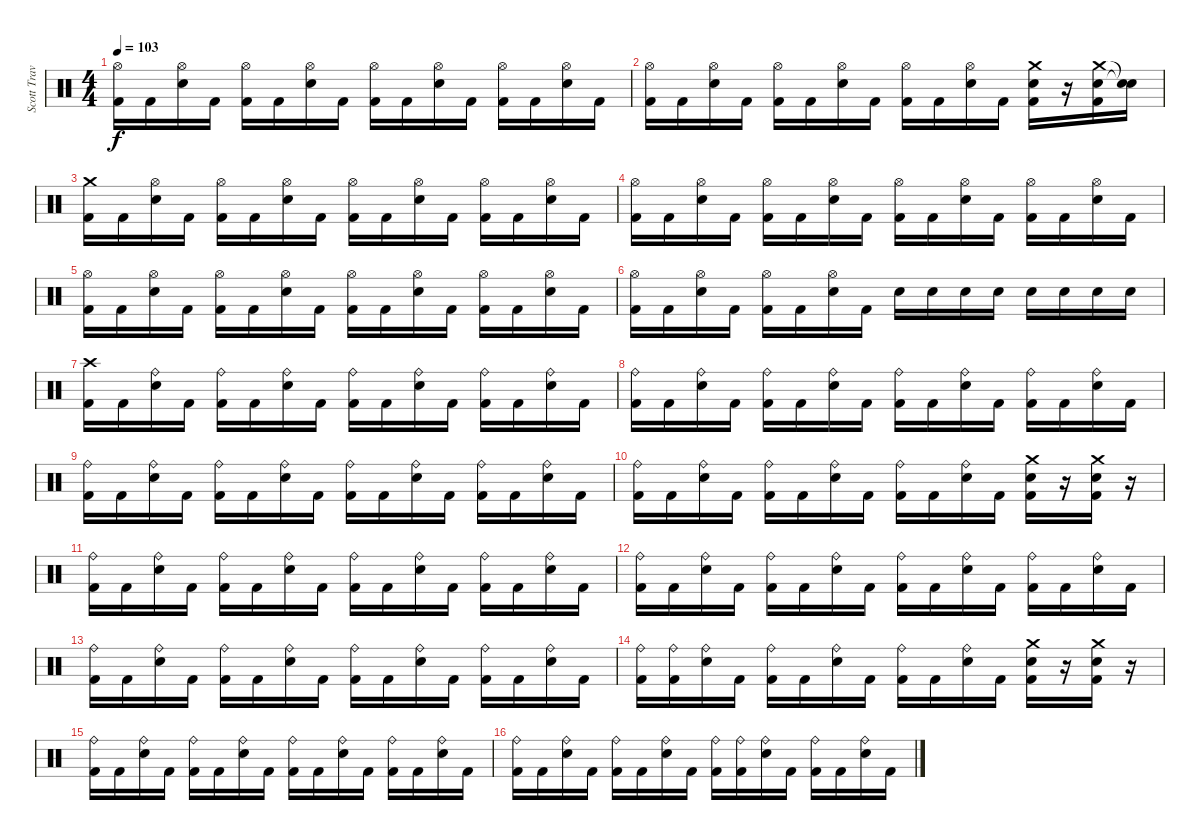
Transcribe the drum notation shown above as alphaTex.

\track ("Scott Travis" "Scott Trav") {instrument percussion}
\staff {score}
\articulation defaults
\ts (4 4)
\tempo 103
\clef neutral
\ks c
("Hi-Hat (open)" "Kick (hit) 2").16{dy f} "Kick (hit) 2".16 ("Hi-Hat (open)" "Snare (hit) 2").16 "Kick (hit) 2".16 ("Hi-Hat (open)" "Kick (hit) 2").16 "Kick (hit) 2".16 ("Hi-Hat (open)" "Snare (hit) 2").16 "Kick (hit) 2".16 ("Hi-Hat (open)" "Kick (hit) 2").16 "Kick (hit) 2".16 ("Hi-Hat (open)" "Snare (hit) 2").16 "Kick (hit) 2".16 ("Hi-Hat (open)" "Kick (hit) 2").16 "Kick (hit) 2".16 ("Hi-Hat (open)" "Snare (hit) 2").16 "Kick (hit) 2".16 |
("Hi-Hat (open)" "Kick (hit) 2").16 "Kick (hit) 2".16 ("Hi-Hat (open)" "Snare (hit) 2").16 "Kick (hit) 2".16 ("Hi-Hat (open)" "Kick (hit) 2").16 "Kick (hit) 2".16 ("Hi-Hat (open)" "Snare (hit) 2").16 "Kick (hit) 2".16 ("Hi-Hat (open)" "Kick (hit) 2").16 "Kick (hit) 2".16 ("Hi-Hat (open)" "Snare (hit) 2").16 "Kick (hit) 2".16 ("Crash medium (hit)" "Snare (hit) 2" "Kick (hit) 2").16 r.16 ("Crash medium (hit)" "Snare (hit) 2" "Kick (hit) 2").16 ("Snare (hit)"{t} "Snare (hit)"{t}).16 |
("Crash medium (hit)" "Kick (hit) 2").16 "Kick (hit) 2".16 ("Hi-Hat (open)" "Snare (hit) 2").16 "Kick (hit) 2".16 ("Hi-Hat (open)" "Kick (hit) 2").16 "Kick (hit) 2".16 ("Hi-Hat (open)" "Snare (hit) 2").16 "Kick (hit) 2".16 ("Hi-Hat (open)" "Kick (hit) 2").16 "Kick (hit) 2".16 ("Hi-Hat (open)" "Snare (hit) 2").16 "Kick (hit) 2".16 ("Hi-Hat (open)" "Kick (hit) 2").16 "Kick (hit) 2".16 ("Hi-Hat (open)" "Snare (hit) 2").16 "Kick (hit) 2".16 |
("Hi-Hat (open)" "Kick (hit) 2").16 "Kick (hit) 2".16 ("Hi-Hat (open)" "Snare (hit) 2").16 "Kick (hit) 2".16 ("Hi-Hat (open)" "Kick (hit) 2").16 "Kick (hit) 2".16 ("Hi-Hat (open)" "Snare (hit) 2").16 "Kick (hit) 2".16 ("Hi-Hat (open)" "Kick (hit) 2").16 "Kick (hit) 2".16 ("Hi-Hat (open)" "Snare (hit) 2").16 "Kick (hit) 2".16 ("Hi-Hat (open)" "Kick (hit) 2").16 "Kick (hit) 2".16 ("Hi-Hat (open)" "Snare (hit) 2").16 "Kick (hit) 2".16 |
("Hi-Hat (open)" "Kick (hit) 2").16 "Kick (hit) 2".16 ("Hi-Hat (open)" "Snare (hit) 2").16 "Kick (hit) 2".16 ("Hi-Hat (open)" "Kick (hit) 2").16 "Kick (hit) 2".16 ("Hi-Hat (open)" "Snare (hit) 2").16 "Kick (hit) 2".16 ("Hi-Hat (open)" "Kick (hit) 2").16 "Kick (hit) 2".16 ("Hi-Hat (open)" "Snare (hit) 2").16 "Kick (hit) 2".16 ("Hi-Hat (open)" "Kick (hit) 2").16 "Kick (hit) 2".16 ("Hi-Hat (open)" "Snare (hit) 2").16 "Kick (hit) 2".16 |
("Hi-Hat (open)" "Kick (hit) 2").16 "Kick (hit) 2".16 ("Hi-Hat (open)" "Snare (hit) 2").16 "Kick (hit) 2".16 ("Hi-Hat (open)" "Kick (hit) 2").16 "Kick (hit) 2".16 ("Hi-Hat (open)" "Snare (hit) 2").16 "Kick (hit) 2".16 "Snare (hit) 2".16 "Snare (hit) 2".16 "Snare (hit) 2".16 "Snare (hit) 2".16 "Snare (hit) 2".16 "Snare (hit) 2".16 "Snare (hit) 2".16 "Snare (hit) 2".16 |
("Crash high (hit)" "Kick (hit) 2").16 "Kick (hit) 2".16 ("Ride (bell)" "Snare (hit) 2").16 "Kick (hit) 2".16 ("Ride (bell)" "Kick (hit) 2").16 "Kick (hit) 2".16 ("Ride (bell)" "Snare (hit) 2").16 "Kick (hit) 2".16 ("Ride (bell)" "Kick (hit) 2").16 "Kick (hit) 2".16 ("Ride (bell)" "Snare (hit) 2").16 "Kick (hit) 2".16 ("Ride (bell)" "Kick (hit) 2").16 "Kick (hit) 2".16 ("Ride (bell)" "Snare (hit) 2").16 "Kick (hit) 2".16 |
("Ride (bell)" "Kick (hit) 2").16 "Kick (hit) 2".16 ("Ride (bell)" "Snare (hit) 2").16 "Kick (hit) 2".16 ("Ride (bell)" "Kick (hit) 2").16 "Kick (hit) 2".16 ("Ride (bell)" "Snare (hit) 2").16 "Kick (hit) 2".16 ("Ride (bell)" "Kick (hit) 2").16 "Kick (hit) 2".16 ("Ride (bell)" "Snare (hit) 2").16 "Kick (hit) 2".16 ("Ride (bell)" "Kick (hit) 2").16 "Kick (hit) 2".16 ("Ride (bell)" "Snare (hit) 2").16 "Kick (hit) 2".16 |
("Ride (bell)" "Kick (hit) 2").16 "Kick (hit) 2".16 ("Ride (bell)" "Snare (hit) 2").16 "Kick (hit) 2".16 ("Ride (bell)" "Kick (hit) 2").16 "Kick (hit) 2".16 ("Ride (bell)" "Snare (hit) 2").16 "Kick (hit) 2".16 ("Ride (bell)" "Kick (hit) 2").16 "Kick (hit) 2".16 ("Ride (bell)" "Snare (hit) 2").16 "Kick (hit) 2".16 ("Ride (bell)" "Kick (hit) 2").16 "Kick (hit) 2".16 ("Ride (bell)" "Snare (hit) 2").16 "Kick (hit) 2".16 |
("Ride (bell)" "Kick (hit) 2").16 "Kick (hit) 2".16 ("Ride (bell)" "Snare (hit) 2").16 "Kick (hit) 2".16 ("Ride (bell)" "Kick (hit) 2").16 "Kick (hit) 2".16 ("Ride (bell)" "Snare (hit) 2").16 "Kick (hit) 2".16 ("Ride (bell)" "Kick (hit) 2").16 "Kick (hit) 2".16 ("Ride (bell)" "Snare (hit) 2").16 "Kick (hit) 2".16 ("Crash medium (hit)" "Snare (hit) 2" "Kick (hit) 2").16 r.16 ("Crash medium (hit)" "Snare (hit) 2" "Kick (hit) 2").16 r.16 |
("Ride (bell)" "Kick (hit) 2").16 "Kick (hit) 2".16 ("Ride (bell)" "Snare (hit) 2").16 "Kick (hit) 2".16 ("Ride (bell)" "Kick (hit) 2").16 "Kick (hit) 2".16 ("Ride (bell)" "Snare (hit) 2").16 "Kick (hit) 2".16 ("Ride (bell)" "Kick (hit) 2").16 "Kick (hit) 2".16 ("Ride (bell)" "Snare (hit) 2").16 "Kick (hit) 2".16 ("Ride (bell)" "Kick (hit) 2").16 "Kick (hit) 2".16 ("Ride (bell)" "Snare (hit) 2").16 "Kick (hit) 2".16 |
("Ride (bell)" "Kick (hit) 2").16 "Kick (hit) 2".16 ("Ride (bell)" "Snare (hit) 2").16 "Kick (hit) 2".16 ("Ride (bell)" "Kick (hit) 2").16 "Kick (hit) 2".16 ("Ride (bell)" "Snare (hit) 2").16 "Kick (hit) 2".16 ("Ride (bell)" "Kick (hit) 2").16 "Kick (hit) 2".16 ("Ride (bell)" "Snare (hit) 2").16 "Kick (hit) 2".16 ("Ride (bell)" "Kick (hit) 2").16 "Kick (hit) 2".16 ("Ride (bell)" "Snare (hit) 2").16 "Kick (hit) 2".16 |
("Ride (bell)" "Kick (hit) 2").16 "Kick (hit) 2".16 ("Ride (bell)" "Snare (hit) 2").16 "Kick (hit) 2".16 ("Ride (bell)" "Kick (hit) 2").16 "Kick (hit) 2".16 ("Ride (bell)" "Snare (hit) 2").16 "Kick (hit) 2".16 ("Ride (bell)" "Kick (hit) 2").16 "Kick (hit) 2".16 ("Ride (bell)" "Snare (hit) 2").16 "Kick (hit) 2".16 ("Ride (bell)" "Kick (hit) 2").16 "Kick (hit) 2".16 ("Ride (bell)" "Snare (hit) 2").16 "Kick (hit) 2".16 |
("Ride (bell)" "Kick (hit) 2").16 ("Ride (bell)" "Kick (hit) 2").16 ("Ride (bell)" "Snare (hit) 2").16 "Kick (hit) 2".16 ("Ride (bell)" "Kick (hit) 2").16 "Kick (hit) 2".16 ("Ride (bell)" "Snare (hit) 2").16 "Kick (hit) 2".16 ("Ride (bell)" "Kick (hit) 2").16 "Kick (hit) 2".16 ("Ride (bell)" "Snare (hit) 2").16 "Kick (hit) 2".16 ("Crash medium (hit)" "Snare (hit) 2" "Kick (hit) 2").16 r.16 ("Crash medium (hit)" "Snare (hit) 2" "Kick (hit) 2").16 r.16 |
("Ride (bell)" "Kick (hit) 2").16 "Kick (hit) 2".16 ("Ride (bell)" "Snare (hit) 2").16 "Kick (hit) 2".16 ("Ride (bell)" "Kick (hit) 2").16 "Kick (hit) 2".16 ("Ride (bell)" "Snare (hit) 2").16 "Kick (hit) 2".16 ("Ride (bell)" "Kick (hit) 2").16 "Kick (hit) 2".16 ("Ride (bell)" "Snare (hit) 2").16 "Kick (hit) 2".16 ("Ride (bell)" "Kick (hit) 2").16 "Kick (hit) 2".16 ("Ride (bell)" "Snare (hit) 2").16 "Kick (hit) 2".16 |
("Ride (bell)" "Kick (hit) 2").16 "Kick (hit) 2".16 ("Ride (bell)" "Snare (hit) 2").16 "Kick (hit) 2".16 ("Ride (bell)" "Kick (hit) 2").16 "Kick (hit) 2".16 ("Ride (bell)" "Snare (hit) 2").16 "Kick (hit) 2".16 ("Ride (bell)" "Kick (hit) 2").16 ("Ride (bell)" "Kick (hit) 2").16 ("Ride (bell)" "Snare (hit) 2").16 "Kick (hit) 2".16 ("Ride (bell)" "Kick (hit) 2").16 "Kick (hit) 2".16 ("Ride (bell)" "Snare (hit) 2").16 "Kick (hit) 2".16
